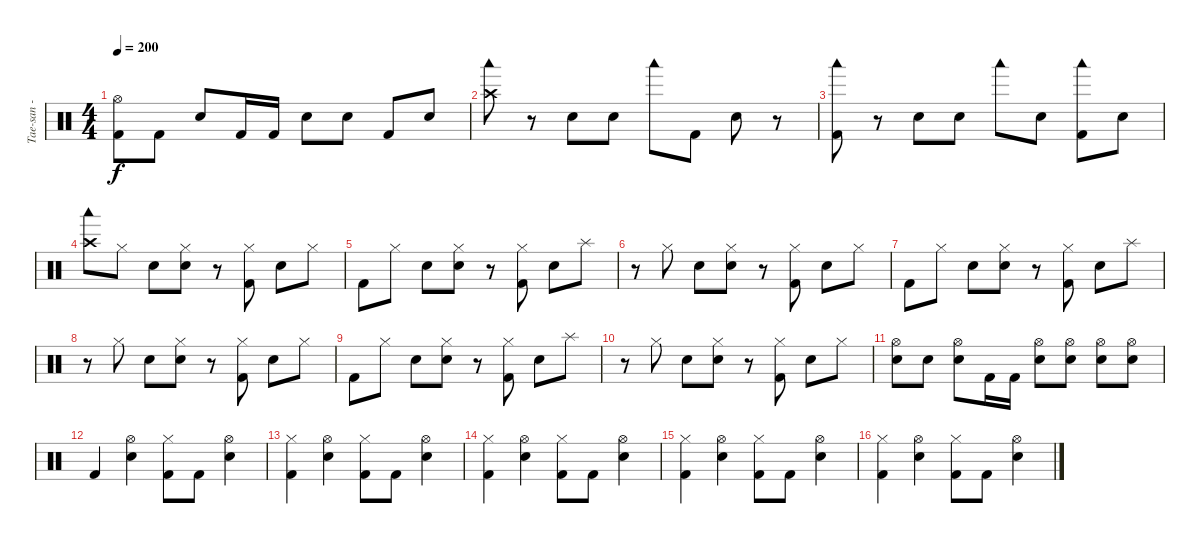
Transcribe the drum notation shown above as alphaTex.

\track ("Tae-san - Drums" "Tae-san - ") {instrument percussion}
\staff {score}
\articulation defaults
\ts (4 4)
\tempo 200
\clef neutral
\ks c
("Kick (hit) 2" "Hi-Hat (open)").8{dy f} "Kick (hit) 2".8 "Electric Snare (hit)".8 "Kick (hit) 2".16 "Kick (hit) 2".16 "Electric Snare (hit)".8 "Electric Snare (hit)".8 "Kick (hit) 2".8 "Electric Snare (hit)".8 |
("Crash high (hit)" "Woodblock low (hit)").8 r.8 "Electric Snare (hit)".8 "Electric Snare (hit)".8 "Woodblock low (hit)".8 "Kick (hit) 2".8 "Electric Snare (hit)".8 r.8 |
("Kick (hit) 2" "Woodblock low (hit)").8 r.8 "Electric Snare (hit)".8 "Electric Snare (hit)".8 "Woodblock low (hit)".8 "Electric Snare (hit)".8 ("Kick (hit) 2" "Woodblock low (hit)").8 "Electric Snare (hit)".8 |
("Crash high (hit)" "Woodblock low (hit)").8 "Hi-Hat (closed)".8 "Electric Snare (hit)".8 ("Electric Snare (hit)" "Hi-Hat (closed)").8 r.8 ("Kick (hit) 2" "Hi-Hat (closed)").8 "Electric Snare (hit)".8 "Hi-Hat (closed)".8 |
"Kick (hit) 2".8 "Hi-Hat (closed)".8 "Electric Snare (hit)".8 ("Electric Snare (hit)" "Hi-Hat (closed)").8 r.8 ("Kick (hit) 2" "Hi-Hat (closed)").8 "Electric Snare (hit)".8 "Splash (hit)".8 |
r.8 "Hi-Hat (closed)".8 "Electric Snare (hit)".8 ("Electric Snare (hit)" "Hi-Hat (closed)").8 r.8 ("Kick (hit) 2" "Hi-Hat (closed)").8 "Electric Snare (hit)".8 "Hi-Hat (closed)".8 |
"Kick (hit) 2".8 "Hi-Hat (closed)".8 "Electric Snare (hit)".8 ("Electric Snare (hit)" "Hi-Hat (closed)").8 r.8 ("Kick (hit) 2" "Hi-Hat (closed)").8 "Electric Snare (hit)".8 "Splash (hit)".8 |
r.8 "Hi-Hat (closed)".8 "Electric Snare (hit)".8 ("Electric Snare (hit)" "Hi-Hat (closed)").8 r.8 ("Kick (hit) 2" "Hi-Hat (closed)").8 "Electric Snare (hit)".8 "Hi-Hat (closed)".8 |
"Kick (hit) 2".8 "Hi-Hat (closed)".8 "Electric Snare (hit)".8 ("Electric Snare (hit)" "Hi-Hat (closed)").8 r.8 ("Kick (hit) 2" "Hi-Hat (closed)").8 "Electric Snare (hit)".8 "Splash (hit)".8 |
r.8 "Hi-Hat (closed)".8 "Electric Snare (hit)".8 ("Electric Snare (hit)" "Hi-Hat (closed)").8 r.8 ("Kick (hit) 2" "Hi-Hat (closed)").8 "Electric Snare (hit)".8 "Hi-Hat (closed)".8 |
("Electric Snare (hit)" "Hi-Hat (open)").8 "Electric Snare (hit)".8 ("Electric Snare (hit)" "Hi-Hat (open)").8 "Kick (hit) 2".16 "Kick (hit) 2".16 ("Electric Snare (hit)" "Hi-Hat (open)").8 ("Electric Snare (hit)" "Hi-Hat (open)").8 ("Electric Snare (hit)" "Hi-Hat (open)").8 ("Electric Snare (hit)" "Hi-Hat (open)").8 |
"Kick (hit) 2".4 ("Electric Snare (hit)" "Hi-Hat (open)").4 ("Kick (hit) 2" "Hi-Hat (closed)").8 "Kick (hit) 2".8 ("Electric Snare (hit)" "Hi-Hat (open)").4 |
("Kick (hit) 2" "Hi-Hat (closed)").4 ("Electric Snare (hit)" "Hi-Hat (open)").4 ("Kick (hit) 2" "Hi-Hat (closed)").8 "Kick (hit) 2".8 ("Electric Snare (hit)" "Hi-Hat (open)").4 |
("Kick (hit) 2" "Hi-Hat (closed)").4 ("Electric Snare (hit)" "Hi-Hat (open)").4 ("Kick (hit) 2" "Hi-Hat (closed)").8 "Kick (hit) 2".8 ("Electric Snare (hit)" "Hi-Hat (open)").4 |
("Kick (hit) 2" "Hi-Hat (closed)").4 ("Electric Snare (hit)" "Hi-Hat (open)").4 ("Kick (hit) 2" "Hi-Hat (closed)").8 "Kick (hit) 2".8 ("Electric Snare (hit)" "Hi-Hat (open)").4 |
("Kick (hit) 2" "Hi-Hat (closed)").4 ("Electric Snare (hit)" "Hi-Hat (open)").4 ("Kick (hit) 2" "Hi-Hat (closed)").8 "Kick (hit) 2".8 ("Electric Snare (hit)" "Hi-Hat (open)").4
